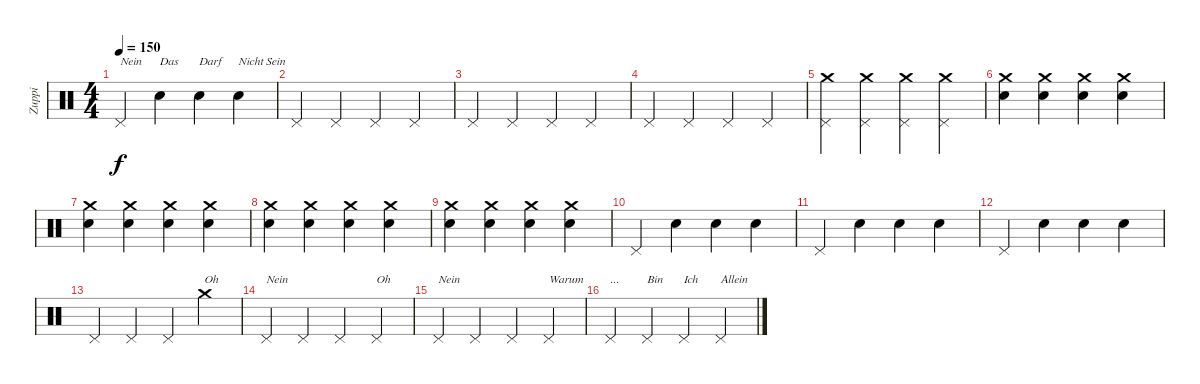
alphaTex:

\track ("Zuppi" "Zuppi") {instrument percussion}
\staff {score}
\articulation defaults
\ts (4 4)
\tempo 150
\clef neutral
\ks c "Pedal Hi-Hat (hit)".4{txt "Nein" dy f} "Snare (hit)".4{txt "Das"} "Snare (hit)".4{txt "Darf"} "Snare (hit)".4{txt "Nicht Sein"}
|
"Pedal Hi-Hat (hit)".4 "Pedal Hi-Hat (hit)".4 "Pedal Hi-Hat (hit)".4 "Pedal Hi-Hat (hit)".4 |
"Pedal Hi-Hat (hit)".4 "Pedal Hi-Hat (hit)".4 "Pedal Hi-Hat (hit)".4 "Pedal Hi-Hat (hit)".4 |
"Pedal Hi-Hat (hit)".4 "Pedal Hi-Hat (hit)".4 "Pedal Hi-Hat (hit)".4 "Pedal Hi-Hat (hit)".4 |
("Pedal Hi-Hat (hit)" "Crash medium (hit)").4 ("Pedal Hi-Hat (hit)" "Crash medium (hit)").4 ("Pedal Hi-Hat (hit)" "Crash medium (hit)").4 ("Pedal Hi-Hat (hit)" "Crash medium (hit)").4 |
("Snare (hit) 2" "Crash medium (hit)").4 ("Snare (hit) 2" "Crash medium (hit)").4 ("Snare (hit) 2" "Crash medium (hit)").4 ("Snare (hit) 2" "Crash medium (hit)").4 |
("Snare (hit) 2" "Crash medium (hit)").4 ("Snare (hit) 2" "Crash medium (hit)").4 ("Snare (hit) 2" "Crash medium (hit)").4 ("Snare (hit) 2" "Crash medium (hit)").4 |
("Snare (hit) 2" "Crash medium (hit)").4 ("Snare (hit) 2" "Crash medium (hit)").4 ("Snare (hit) 2" "Crash medium (hit)").4 ("Snare (hit) 2" "Crash medium (hit)").4 |
("Snare (hit) 2" "Crash medium (hit)").4 ("Snare (hit) 2" "Crash medium (hit)").4 ("Snare (hit) 2" "Crash medium (hit)").4 ("Snare (hit) 2" "Crash medium (hit)").4 |
"Pedal Hi-Hat (hit)".4 "Snare (hit)".4 "Snare (hit)".4 "Snare (hit)".4 |
"Pedal Hi-Hat (hit)".4 "Snare (hit)".4 "Snare (hit)".4 "Snare (hit)".4 |
"Pedal Hi-Hat (hit)".4 "Snare (hit)".4 "Snare (hit)".4 "Snare (hit)".4 |
"Pedal Hi-Hat (hit)".4 "Pedal Hi-Hat (hit)".4 "Pedal Hi-Hat (hit)".4 "Crash medium (hit)".4{txt "Oh"} |
"Pedal Hi-Hat (hit)".4{txt "Nein"} "Pedal Hi-Hat (hit)".4 "Pedal Hi-Hat (hit)".4 "Pedal Hi-Hat (hit)".4{txt "Oh"} |
"Pedal Hi-Hat (hit)".4{txt "Nein"} "Pedal Hi-Hat (hit)".4 "Pedal Hi-Hat (hit)".4 "Pedal Hi-Hat (hit)".4{txt "Warum"} |
"Pedal Hi-Hat (hit)".4{txt "..."} "Pedal Hi-Hat (hit)".4{txt "Bin"} "Pedal Hi-Hat (hit)".4{txt "Ich"} "Pedal Hi-Hat (hit)".4{txt "Allein"}
